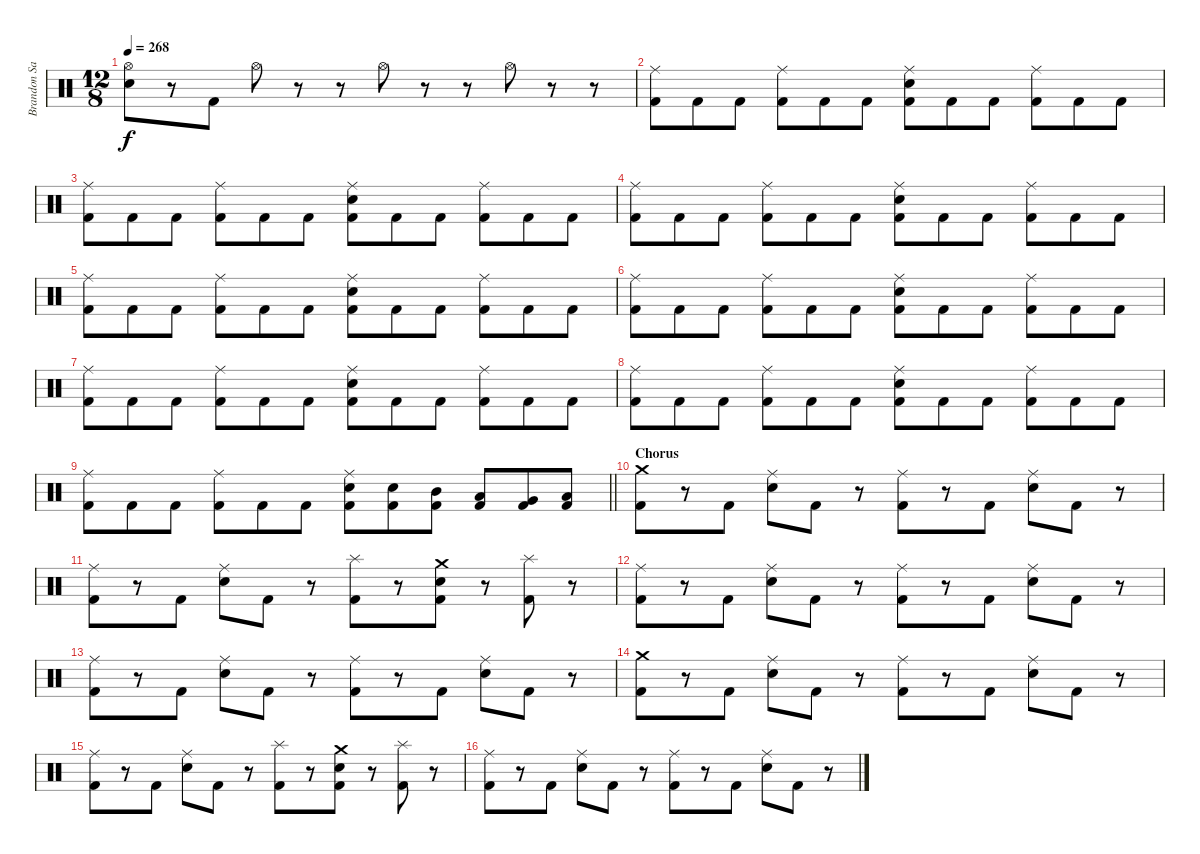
\track ("Brandon Saller" "Brandon Sa") {instrument percussion}
\staff {score}
\articulation defaults
\ts (12 8)
\tempo 268
\clef neutral
\ks c
("Hi-Hat (open)" "Electric Snare (hit)").8{dy f} r.8 "Kick (hit) 2".8 "Hi-Hat (open)".8 r.8 r.8 "Hi-Hat (open)".8 r.8 r.8 "Hi-Hat (open)".8 r.8 r.8 |
("Ride (middle)" "Kick (hit) 2").8 "Kick (hit) 2".8 "Kick (hit) 2".8 ("Ride (middle)" "Kick (hit) 2").8 "Kick (hit) 2".8 "Kick (hit) 2".8 ("Ride (middle)" "Electric Snare (hit)" "Kick (hit) 2").8 "Kick (hit) 2".8 "Kick (hit) 2".8 ("Ride (middle)" "Kick (hit) 2").8 "Kick (hit) 2".8 "Kick (hit) 2".8 |
("Ride (middle)" "Kick (hit) 2").8 "Kick (hit) 2".8 "Kick (hit) 2".8 ("Ride (middle)" "Kick (hit) 2").8 "Kick (hit) 2".8 "Kick (hit) 2".8 ("Ride (middle)" "Electric Snare (hit)" "Kick (hit) 2").8 "Kick (hit) 2".8 "Kick (hit) 2".8 ("Ride (middle)" "Kick (hit) 2").8 "Kick (hit) 2".8 "Kick (hit) 2".8 |
("Ride (middle)" "Kick (hit) 2").8 "Kick (hit) 2".8 "Kick (hit) 2".8 ("Ride (middle)" "Kick (hit) 2").8 "Kick (hit) 2".8 "Kick (hit) 2".8 ("Ride (middle)" "Electric Snare (hit)" "Kick (hit) 2").8 "Kick (hit) 2".8 "Kick (hit) 2".8 ("Ride (middle)" "Kick (hit) 2").8 "Kick (hit) 2".8 "Kick (hit) 2".8 |
("Ride (middle)" "Kick (hit) 2").8 "Kick (hit) 2".8 "Kick (hit) 2".8 ("Ride (middle)" "Kick (hit) 2").8 "Kick (hit) 2".8 "Kick (hit) 2".8 ("Ride (middle)" "Electric Snare (hit)" "Kick (hit) 2").8 "Kick (hit) 2".8 "Kick (hit) 2".8 ("Ride (middle)" "Kick (hit) 2").8 "Kick (hit) 2".8 "Kick (hit) 2".8 |
("Ride (middle)" "Kick (hit) 2").8 "Kick (hit) 2".8 "Kick (hit) 2".8 ("Ride (middle)" "Kick (hit) 2").8 "Kick (hit) 2".8 "Kick (hit) 2".8 ("Ride (middle)" "Electric Snare (hit)" "Kick (hit) 2").8 "Kick (hit) 2".8 "Kick (hit) 2".8 ("Ride (middle)" "Kick (hit) 2").8 "Kick (hit) 2".8 "Kick (hit) 2".8 |
("Ride (middle)" "Kick (hit) 2").8 "Kick (hit) 2".8 "Kick (hit) 2".8 ("Ride (middle)" "Kick (hit) 2").8 "Kick (hit) 2".8 "Kick (hit) 2".8 ("Ride (middle)" "Electric Snare (hit)" "Kick (hit) 2").8 "Kick (hit) 2".8 "Kick (hit) 2".8 ("Ride (middle)" "Kick (hit) 2").8 "Kick (hit) 2".8 "Kick (hit) 2".8 |
("Ride (middle)" "Kick (hit) 2").8 "Kick (hit) 2".8 "Kick (hit) 2".8 ("Ride (middle)" "Kick (hit) 2").8 "Kick (hit) 2".8 "Kick (hit) 2".8 ("Ride (middle)" "Electric Snare (hit)" "Kick (hit) 2").8 "Kick (hit) 2".8 "Kick (hit) 2".8 ("Ride (middle)" "Kick (hit) 2").8 "Kick (hit) 2".8 "Kick (hit) 2".8 |
\barLineRight lightlight
("Ride (middle)" "Kick (hit) 2").8 "Kick (hit) 2".8 "Kick (hit) 2".8 ("Ride (middle)" "Kick (hit) 2").8 "Kick (hit) 2".8 "Kick (hit) 2".8 ("Ride (middle)" "Electric Snare (hit)" "Kick (hit) 2").8 ("Electric Snare (hit)" "Kick (hit) 2").8 ("Mid Tom (hit)" "Kick (hit) 2").8 ("Low Tom (hit)" "Kick (hit) 2").8 ("Very Low Tom (hit)" "Kick (hit) 2").8 ("Low Floor Tom (hit)" "Kick (hit) 2").8 |
\section ("" "Chorus")
("Crash medium (hit)" "Kick (hit) 2").8 r.8 "Kick (hit) 2".8 ("Ride (middle)" "Electric Snare (hit)").8 "Kick (hit) 2".8 r.8 ("Ride (middle)" "Kick (hit) 2").8 r.8 "Kick (hit) 2".8 ("Ride (middle)" "Electric Snare (hit)").8 "Kick (hit) 2".8 r.8 |
("Ride (middle)" "Kick (hit) 2").8 r.8 "Kick (hit) 2".8 ("Ride (middle)" "Electric Snare (hit)").8 "Kick (hit) 2".8 r.8 ("Splash (hit)" "Kick (hit) 2").8 r.8 ("Crash medium (hit)" "Electric Snare (hit)" "Kick (hit) 2").8 r.8 ("Splash (hit)" "Kick (hit) 2").8 r.8 |
("Ride (middle)" "Kick (hit) 2").8 r.8 "Kick (hit) 2".8 ("Ride (middle)" "Electric Snare (hit)").8 "Kick (hit) 2".8 r.8 ("Ride (middle)" "Kick (hit) 2").8 r.8 "Kick (hit) 2".8 ("Ride (middle)" "Electric Snare (hit)").8 "Kick (hit) 2".8 r.8 |
("Ride (middle)" "Kick (hit) 2").8 r.8 "Kick (hit) 2".8 ("Ride (middle)" "Electric Snare (hit)").8 "Kick (hit) 2".8 r.8 ("Ride (middle)" "Kick (hit) 2").8 r.8 "Kick (hit) 2".8 ("Ride (middle)" "Electric Snare (hit)").8 "Kick (hit) 2".8 r.8 |
("Crash medium (hit)" "Kick (hit) 2").8 r.8 "Kick (hit) 2".8 ("Ride (middle)" "Electric Snare (hit)").8 "Kick (hit) 2".8 r.8 ("Ride (middle)" "Kick (hit) 2").8 r.8 "Kick (hit) 2".8 ("Ride (middle)" "Electric Snare (hit)").8 "Kick (hit) 2".8 r.8 |
("Ride (middle)" "Kick (hit) 2").8 r.8 "Kick (hit) 2".8 ("Ride (middle)" "Electric Snare (hit)").8 "Kick (hit) 2".8 r.8 ("Splash (hit)" "Kick (hit) 2").8 r.8 ("Crash medium (hit)" "Electric Snare (hit)" "Kick (hit) 2").8 r.8 ("Splash (hit)" "Kick (hit) 2").8 r.8 |
("Ride (middle)" "Kick (hit) 2").8 r.8 "Kick (hit) 2".8 ("Ride (middle)" "Electric Snare (hit)").8 "Kick (hit) 2".8 r.8 ("Ride (middle)" "Kick (hit) 2").8 r.8 "Kick (hit) 2".8 ("Ride (middle)" "Electric Snare (hit)").8 "Kick (hit) 2".8 r.8
